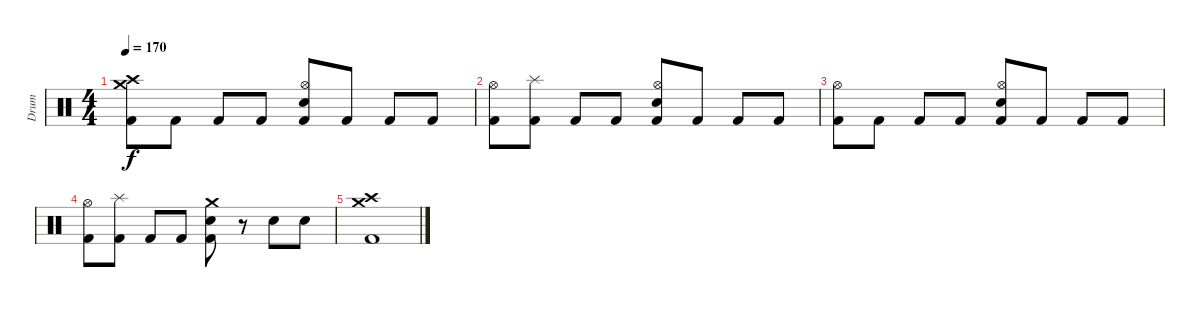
\track ("Drum" "Drum") {instrument percussion}
\staff {score}
\articulation defaults
\ts (4 4)
\tempo 170
\clef neutral
\ks c
("Crash high (hit)" "Crash medium (hit)" "Kick (hit) 2").8{dy f} "Kick (hit) 2".8 "Kick (hit) 2".8 "Kick (hit) 2".8 ("Hi-Hat (open)" "Snare (hit) 2" "Kick (hit) 2").8 "Kick (hit) 2".8 "Kick (hit) 2".8 "Kick (hit) 2".8 |
("Hi-Hat (open)" "Kick (hit) 2").8 ("Splash (hit)" "Kick (hit) 2").8 "Kick (hit) 2".8 "Kick (hit) 2".8 ("Hi-Hat (open)" "Snare (hit) 2" "Kick (hit) 2").8 "Kick (hit) 2".8 "Kick (hit) 2".8 "Kick (hit) 2".8 |
("Hi-Hat (open)" "Kick (hit) 2").8 "Kick (hit) 2".8 "Kick (hit) 2".8 "Kick (hit) 2".8 ("Hi-Hat (open)" "Snare (hit) 2" "Kick (hit) 2").8 "Kick (hit) 2".8 "Kick (hit) 2".8 "Kick (hit) 2".8 |
("Hi-Hat (open)" "Kick (hit) 2").8 ("Splash (hit)" "Kick (hit) 2").8 "Kick (hit) 2".8 "Kick (hit) 2".8 ("Crash medium (hit)" "Snare (hit) 2" "Kick (hit) 2").8 r.8 "Snare (hit) 2".8 "Snare (hit) 2".8 |
("Crash medium (hit)" "Crash high (hit)" "Kick (hit) 2").1
